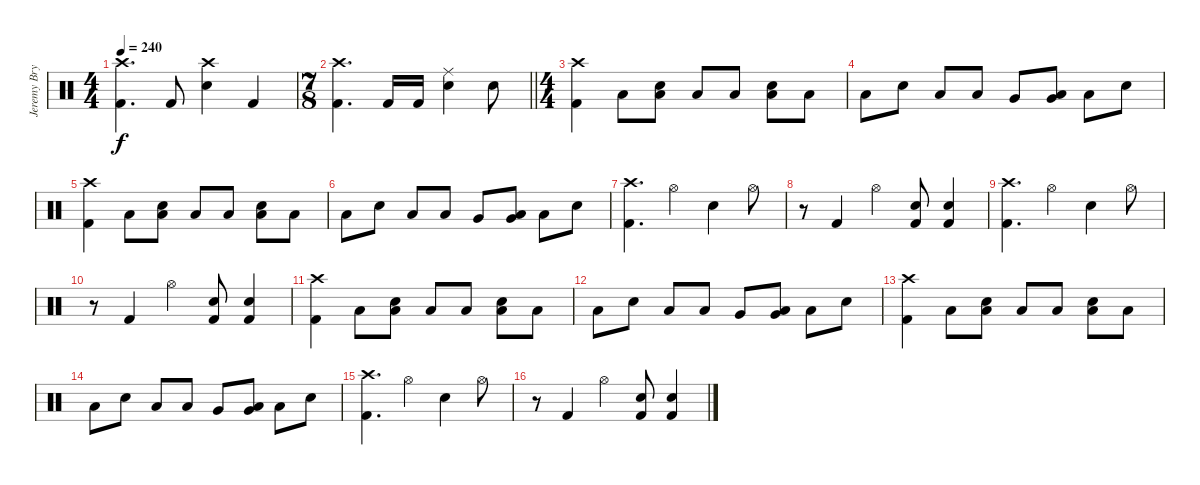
\track ("Jeremy Bryan - Drums" "Jeremy Bry") {instrument percussion}
\staff {score}
\articulation defaults
\ts (4 4)
\tempo 240
\clef neutral
\ks c
("Crash high (hit)" "Kick (hit) 2").4{d dy f} "Kick (hit) 2".8 ("Crash high (hit)" "Electric Snare (hit)").4 "Kick (hit) 2".4 |
\ts (7 8)
\barLineRight lightlight
("Crash high (hit)" "Kick (hit) 2").4{d} "Kick (hit) 2".16 "Kick (hit) 2".16 ("Ride (middle)" "Electric Snare (hit)").4 "Electric Snare (hit)".8 |
\ts (4 4)
("Crash high (hit)" "Kick (hit) 2").4 "Low Floor Tom (hit)".8 ("Electric Snare (hit)" "Low Floor Tom (hit)").8 "Low Floor Tom (hit)".8 "Low Floor Tom (hit)".8 ("Electric Snare (hit)" "Low Floor Tom (hit)").8 "Low Floor Tom (hit)".8 |
"Low Floor Tom (hit)".8 "Electric Snare (hit)".8 "Low Tom (hit)".8 "Low Tom (hit)".8 "Very Low Tom (hit)".8 ("Very Low Tom (hit)" "Low Floor Tom (hit)").8 "Low Floor Tom (hit)".8 "Electric Snare (hit)".8 |
("Crash high (hit)" "Kick (hit) 2").4 "Low Floor Tom (hit)".8 ("Electric Snare (hit)" "Low Floor Tom (hit)").8 "Low Floor Tom (hit)".8 "Low Floor Tom (hit)".8 ("Electric Snare (hit)" "Low Floor Tom (hit)").8 "Low Floor Tom (hit)".8 |
"Low Floor Tom (hit)".8 "Electric Snare (hit)".8 "Low Tom (hit)".8 "Low Tom (hit)".8 "Very Low Tom (hit)".8 ("Very Low Tom (hit)" "Low Floor Tom (hit)").8 "Low Floor Tom (hit)".8 "Electric Snare (hit)".8 |
("Crash high (hit)" "Kick (hit) 2").4{d} "Hi-Hat (open)".4 "Electric Snare (hit)".4 "Hi-Hat (open)".8 |
r.8 "Kick (hit) 2".4 "Hi-Hat (open)".4 ("Electric Snare (hit)" "Kick (hit) 2").8 ("Electric Snare (hit)" "Kick (hit) 2").4 |
("Crash high (hit)" "Kick (hit) 2").4{d} "Hi-Hat (open)".4 "Electric Snare (hit)".4 "Hi-Hat (open)".8 |
r.8 "Kick (hit) 2".4 "Hi-Hat (open)".4 ("Electric Snare (hit)" "Kick (hit) 2").8 ("Electric Snare (hit)" "Kick (hit) 2").4 |
("Crash high (hit)" "Kick (hit) 2").4 "Low Floor Tom (hit)".8 ("Electric Snare (hit)" "Low Floor Tom (hit)").8 "Low Floor Tom (hit)".8 "Low Floor Tom (hit)".8 ("Electric Snare (hit)" "Low Floor Tom (hit)").8 "Low Floor Tom (hit)".8 |
"Low Floor Tom (hit)".8 "Electric Snare (hit)".8 "Low Tom (hit)".8 "Low Tom (hit)".8 "Very Low Tom (hit)".8 ("Very Low Tom (hit)" "Low Floor Tom (hit)").8 "Low Floor Tom (hit)".8 "Electric Snare (hit)".8 |
("Crash high (hit)" "Kick (hit) 2").4 "Low Floor Tom (hit)".8 ("Electric Snare (hit)" "Low Floor Tom (hit)").8 "Low Floor Tom (hit)".8 "Low Floor Tom (hit)".8 ("Electric Snare (hit)" "Low Floor Tom (hit)").8 "Low Floor Tom (hit)".8 |
"Low Floor Tom (hit)".8 "Electric Snare (hit)".8 "Low Tom (hit)".8 "Low Tom (hit)".8 "Very Low Tom (hit)".8 ("Very Low Tom (hit)" "Low Floor Tom (hit)").8 "Low Floor Tom (hit)".8 "Electric Snare (hit)".8 |
("Crash high (hit)" "Kick (hit) 2").4{d} "Hi-Hat (open)".4 "Electric Snare (hit)".4 "Hi-Hat (open)".8 |
r.8 "Kick (hit) 2".4 "Hi-Hat (open)".4 ("Electric Snare (hit)" "Kick (hit) 2").8 ("Electric Snare (hit)" "Kick (hit) 2").4
